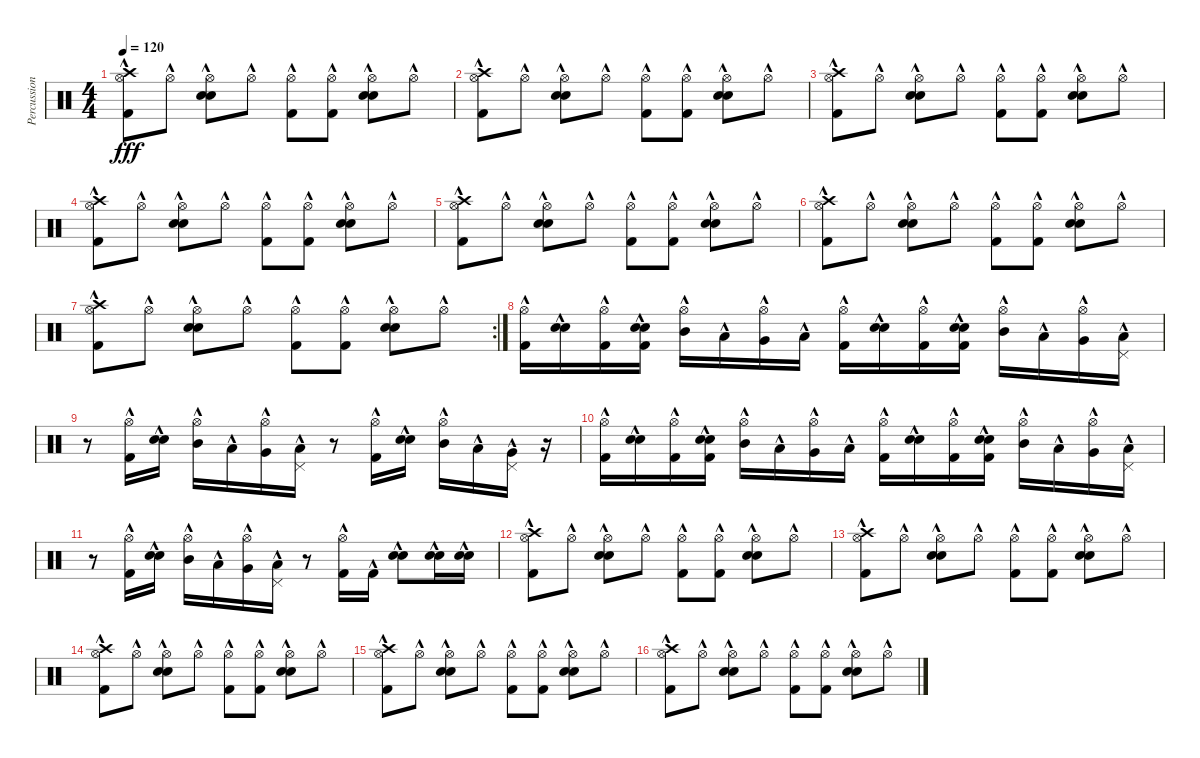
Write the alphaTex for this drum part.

\track ("Percussion" "Percussion") {instrument percussion}
\staff {score}
\articulation defaults
\ts (4 4)
\tempo 120
\clef neutral
\ks c
("Crash high (hit)"{hac} "Hi-Hat (open)"{hac} "Kick (hit) 2"{hac}).8{dy fff} "Hi-Hat (open)"{hac}.8 ("Electric Snare (hit)"{hac} "Snare (hit) 2"{hac} "Hi-Hat (open)"{hac}).8 "Hi-Hat (open)"{hac}.8 ("Hi-Hat (open)"{hac} "Kick (hit) 2"{hac}).8 ("Hi-Hat (open)"{hac} "Kick (hit) 2"{hac}).8 ("Electric Snare (hit)"{hac} "Snare (hit) 2"{hac} "Hi-Hat (open)"{hac}).8 "Hi-Hat (open)"{hac}.8 |
("Crash high (hit)"{hac} "Hi-Hat (open)"{hac} "Kick (hit) 2"{hac}).8 "Hi-Hat (open)"{hac}.8 ("Electric Snare (hit)"{hac} "Snare (hit) 2"{hac} "Hi-Hat (open)"{hac}).8 "Hi-Hat (open)"{hac}.8 ("Hi-Hat (open)"{hac} "Kick (hit) 2"{hac}).8 ("Hi-Hat (open)"{hac} "Kick (hit) 2"{hac}).8 ("Electric Snare (hit)"{hac} "Snare (hit) 2"{hac} "Hi-Hat (open)"{hac}).8 "Hi-Hat (open)"{hac}.8 |
("Crash high (hit)"{hac} "Hi-Hat (open)"{hac} "Kick (hit) 2"{hac}).8 "Hi-Hat (open)"{hac}.8 ("Electric Snare (hit)"{hac} "Snare (hit) 2"{hac} "Hi-Hat (open)"{hac}).8 "Hi-Hat (open)"{hac}.8 ("Hi-Hat (open)"{hac} "Kick (hit) 2"{hac}).8 ("Hi-Hat (open)"{hac} "Kick (hit) 2"{hac}).8 ("Electric Snare (hit)"{hac} "Snare (hit) 2"{hac} "Hi-Hat (open)"{hac}).8 "Hi-Hat (open)"{hac}.8 |
("Crash high (hit)"{hac} "Hi-Hat (open)"{hac} "Kick (hit) 2"{hac}).8 "Hi-Hat (open)"{hac}.8 ("Electric Snare (hit)"{hac} "Snare (hit) 2"{hac} "Hi-Hat (open)"{hac}).8 "Hi-Hat (open)"{hac}.8 ("Hi-Hat (open)"{hac} "Kick (hit) 2"{hac}).8 ("Hi-Hat (open)"{hac} "Kick (hit) 2"{hac}).8 ("Electric Snare (hit)"{hac} "Snare (hit) 2"{hac} "Hi-Hat (open)"{hac}).8 "Hi-Hat (open)"{hac}.8 |
("Crash high (hit)"{hac} "Hi-Hat (open)"{hac} "Kick (hit) 2"{hac}).8 "Hi-Hat (open)"{hac}.8 ("Electric Snare (hit)"{hac} "Snare (hit) 2"{hac} "Hi-Hat (open)"{hac}).8 "Hi-Hat (open)"{hac}.8 ("Hi-Hat (open)"{hac} "Kick (hit) 2"{hac}).8 ("Hi-Hat (open)"{hac} "Kick (hit) 2"{hac}).8 ("Electric Snare (hit)"{hac} "Snare (hit) 2"{hac} "Hi-Hat (open)"{hac}).8 "Hi-Hat (open)"{hac}.8 |
("Crash high (hit)"{hac} "Hi-Hat (open)"{hac} "Kick (hit) 2"{hac}).8 "Hi-Hat (open)"{hac}.8 ("Electric Snare (hit)"{hac} "Snare (hit) 2"{hac} "Hi-Hat (open)"{hac}).8 "Hi-Hat (open)"{hac}.8 ("Hi-Hat (open)"{hac} "Kick (hit) 2"{hac}).8 ("Hi-Hat (open)"{hac} "Kick (hit) 2"{hac}).8 ("Electric Snare (hit)"{hac} "Snare (hit) 2"{hac} "Hi-Hat (open)"{hac}).8 "Hi-Hat (open)"{hac}.8 |
\rc 2
("Crash high (hit)"{hac} "Hi-Hat (open)"{hac} "Kick (hit) 2"{hac}).8 "Hi-Hat (open)"{hac}.8 ("Electric Snare (hit)"{hac} "Snare (hit) 2"{hac} "Hi-Hat (open)"{hac}).8 "Hi-Hat (open)"{hac}.8 ("Hi-Hat (open)"{hac} "Kick (hit) 2"{hac}).8 ("Hi-Hat (open)"{hac} "Kick (hit) 2"{hac}).8 ("Electric Snare (hit)"{hac} "Snare (hit) 2"{hac} "Hi-Hat (open)"{hac}).8 "Hi-Hat (open)"{hac}.8 |
("Hi-Hat (open)"{hac} "Kick (hit) 2"{hac}).16 ("Electric Snare (hit)"{hac} "Snare (hit) 2"{hac}).16 ("Hi-Hat (open)"{hac} "Kick (hit) 2"{hac}).16 ("Electric Snare (hit)"{hac} "Snare (hit) 2"{hac} "Kick (hit) 2"{hac}).16 ("Mid Tom (hit)"{hac} "Hi-Hat (open)"{hac}).16 "Low Tom (hit)"{hac}.16 ("Very Low Tom (hit)"{hac} "Hi-Hat (open)"{hac}).16 "Low Floor Tom (hit)"{hac}.16 ("Hi-Hat (open)"{hac} "Kick (hit) 2"{hac}).16 ("Electric Snare (hit)"{hac} "Snare (hit) 2"{hac}).16 ("Hi-Hat (open)"{hac} "Kick (hit) 2"{hac}).16 ("Electric Snare (hit)"{hac} "Snare (hit) 2"{hac} "Kick (hit) 2"{hac}).16 ("Mid Tom (hit)"{hac} "Hi-Hat (open)"{hac}).16 "Low Tom (hit)"{hac}.16 ("Very Low Tom (hit)"{hac} "Hi-Hat (open)"{hac}).16 ("Low Floor Tom (hit)"{hac} "Pedal Hi-Hat (hit)").16 |
r.8 ("Hi-Hat (open)"{hac} "Kick (hit) 2"{hac}).16 ("Electric Snare (hit)"{hac} "Snare (hit) 2"{hac}).16 ("Mid Tom (hit)"{hac} "Hi-Hat (open)"{hac}).16 "Low Tom (hit)"{hac}.16 ("Very Low Tom (hit)"{hac} "Hi-Hat (open)"{hac}).16 ("Low Floor Tom (hit)"{hac} "Pedal Hi-Hat (hit)"{hac}).16 r.8 ("Hi-Hat (open)"{hac} "Kick (hit) 2"{hac}).16 ("Electric Snare (hit)"{hac} "Snare (hit) 2"{hac}).16 ("Mid Tom (hit)"{hac} "Hi-Hat (open)"{hac}).16 "Low Tom (hit)"{hac}.16 ("Very Low Tom (hit)"{hac} "Pedal Hi-Hat (hit)"{hac}).16 r.16 |
("Hi-Hat (open)"{hac} "Kick (hit) 2"{hac}).16 ("Electric Snare (hit)"{hac} "Snare (hit) 2"{hac}).16 ("Hi-Hat (open)"{hac} "Kick (hit) 2"{hac}).16 ("Electric Snare (hit)"{hac} "Snare (hit) 2"{hac} "Kick (hit) 2"{hac}).16 ("Mid Tom (hit)"{hac} "Hi-Hat (open)"{hac}).16 "Low Tom (hit)"{hac}.16 ("Very Low Tom (hit)"{hac} "Hi-Hat (open)"{hac}).16 "Low Floor Tom (hit)"{hac}.16 ("Hi-Hat (open)"{hac} "Kick (hit) 2"{hac}).16 ("Electric Snare (hit)"{hac} "Snare (hit) 2"{hac}).16 ("Hi-Hat (open)"{hac} "Kick (hit) 2"{hac}).16 ("Electric Snare (hit)"{hac} "Snare (hit) 2"{hac} "Kick (hit) 2"{hac}).16 ("Mid Tom (hit)"{hac} "Hi-Hat (open)"{hac}).16 "Low Tom (hit)"{hac}.16 ("Very Low Tom (hit)"{hac} "Hi-Hat (open)"{hac}).16 ("Low Floor Tom (hit)"{hac} "Pedal Hi-Hat (hit)").16 |
r.8 ("Hi-Hat (open)"{hac} "Kick (hit) 2"{hac}).16 ("Electric Snare (hit)"{hac} "Snare (hit) 2"{hac}).16 ("Mid Tom (hit)"{hac} "Hi-Hat (open)"{hac}).16 "Low Tom (hit)"{hac}.16 ("Very Low Tom (hit)"{hac} "Hi-Hat (open)"{hac}).16 ("Low Floor Tom (hit)"{hac} "Pedal Hi-Hat (hit)"{hac}).16 r.8 ("Hi-Hat (open)"{hac} "Kick (hit) 2"{hac}).16 "Kick (hit) 2"{hac}.16 ("Electric Snare (hit)"{hac} "Snare (hit) 2"{hac}).8 ("Electric Snare (hit)"{hac} "Snare (hit) 2"{hac}).16 ("Electric Snare (hit)"{hac} "Snare (hit) 2"{hac}).16 |
("Crash high (hit)"{hac} "Hi-Hat (open)"{hac} "Kick (hit) 2"{hac}).8 "Hi-Hat (open)"{hac}.8 ("Electric Snare (hit)"{hac} "Snare (hit) 2"{hac} "Hi-Hat (open)"{hac}).8 "Hi-Hat (open)"{hac}.8 ("Hi-Hat (open)"{hac} "Kick (hit) 2"{hac}).8 ("Hi-Hat (open)"{hac} "Kick (hit) 2"{hac}).8 ("Electric Snare (hit)"{hac} "Snare (hit) 2"{hac} "Hi-Hat (open)"{hac}).8 "Hi-Hat (open)"{hac}.8 |
("Crash high (hit)"{hac} "Hi-Hat (open)"{hac} "Kick (hit) 2"{hac}).8 "Hi-Hat (open)"{hac}.8 ("Electric Snare (hit)"{hac} "Snare (hit) 2"{hac} "Hi-Hat (open)"{hac}).8 "Hi-Hat (open)"{hac}.8 ("Hi-Hat (open)"{hac} "Kick (hit) 2"{hac}).8 ("Hi-Hat (open)"{hac} "Kick (hit) 2"{hac}).8 ("Electric Snare (hit)"{hac} "Snare (hit) 2"{hac} "Hi-Hat (open)"{hac}).8 "Hi-Hat (open)"{hac}.8 |
("Crash high (hit)"{hac} "Hi-Hat (open)"{hac} "Kick (hit) 2"{hac}).8 "Hi-Hat (open)"{hac}.8 ("Electric Snare (hit)"{hac} "Snare (hit) 2"{hac} "Hi-Hat (open)"{hac}).8 "Hi-Hat (open)"{hac}.8 ("Hi-Hat (open)"{hac} "Kick (hit) 2"{hac}).8 ("Hi-Hat (open)"{hac} "Kick (hit) 2"{hac}).8 ("Electric Snare (hit)"{hac} "Snare (hit) 2"{hac} "Hi-Hat (open)"{hac}).8 "Hi-Hat (open)"{hac}.8 |
("Crash high (hit)"{hac} "Hi-Hat (open)"{hac} "Kick (hit) 2"{hac}).8 "Hi-Hat (open)"{hac}.8 ("Electric Snare (hit)"{hac} "Snare (hit) 2"{hac} "Hi-Hat (open)"{hac}).8 "Hi-Hat (open)"{hac}.8 ("Hi-Hat (open)"{hac} "Kick (hit) 2"{hac}).8 ("Hi-Hat (open)"{hac} "Kick (hit) 2"{hac}).8 ("Electric Snare (hit)"{hac} "Snare (hit) 2"{hac} "Hi-Hat (open)"{hac}).8 "Hi-Hat (open)"{hac}.8 |
("Crash high (hit)"{hac} "Hi-Hat (open)"{hac} "Kick (hit) 2"{hac}).8 "Hi-Hat (open)"{hac}.8 ("Electric Snare (hit)"{hac} "Snare (hit) 2"{hac} "Hi-Hat (open)"{hac}).8 "Hi-Hat (open)"{hac}.8 ("Hi-Hat (open)"{hac} "Kick (hit) 2"{hac}).8 ("Hi-Hat (open)"{hac} "Kick (hit) 2"{hac}).8 ("Electric Snare (hit)"{hac} "Snare (hit) 2"{hac} "Hi-Hat (open)"{hac}).8 "Hi-Hat (open)"{hac}.8
